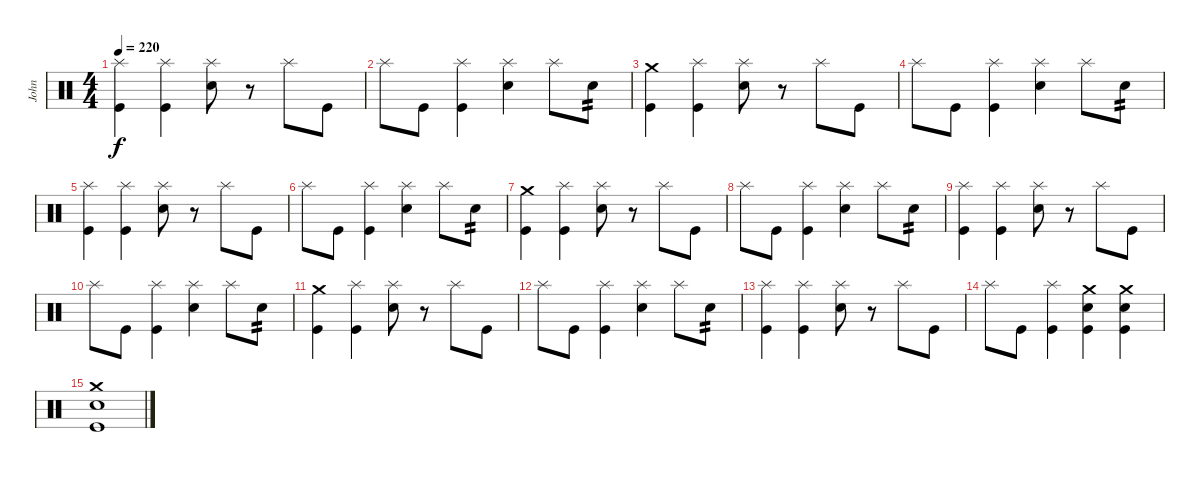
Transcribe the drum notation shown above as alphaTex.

\track ("John" "John") {instrument percussion}
\staff {score}
\articulation defaults
\ts (4 4)
\tempo 220
\clef neutral
\ks c
("Splash (hit)" "Kick (hit)").4{dy f} ("Splash (hit)" "Kick (hit)").4 ("Splash (hit)" "Snare (hit) 2").8 r.8 "Splash (hit)".8 "Kick (hit)".8 |
"Splash (hit)".8 "Kick (hit)".8 ("Splash (hit)" "Kick (hit)").4 ("Splash (hit)" "Snare (hit) 2").4 "Splash (hit)".8 "Snare (hit) 2".8{tp 2} |
("Crash medium (hit)" "Kick (hit)").4 ("Splash (hit)" "Kick (hit)").4 ("Splash (hit)" "Snare (hit) 2").8 r.8 "Splash (hit)".8 "Kick (hit)".8 |
"Splash (hit)".8 "Kick (hit)".8 ("Splash (hit)" "Kick (hit)").4 ("Splash (hit)" "Snare (hit) 2").4 "Splash (hit)".8 "Snare (hit) 2".8{tp 2} |
("Splash (hit)" "Kick (hit)").4 ("Splash (hit)" "Kick (hit)").4 ("Splash (hit)" "Snare (hit) 2").8 r.8 "Splash (hit)".8 "Kick (hit)".8 |
"Splash (hit)".8 "Kick (hit)".8 ("Splash (hit)" "Kick (hit)").4 ("Splash (hit)" "Snare (hit) 2").4 "Splash (hit)".8 "Snare (hit) 2".8{tp 2} |
("Crash medium (hit)" "Kick (hit)").4 ("Splash (hit)" "Kick (hit)").4 ("Splash (hit)" "Snare (hit) 2").8 r.8 "Splash (hit)".8 "Kick (hit)".8 |
"Splash (hit)".8 "Kick (hit)".8 ("Splash (hit)" "Kick (hit)").4 ("Splash (hit)" "Snare (hit) 2").4 "Splash (hit)".8 "Snare (hit) 2".8{tp 2} |
("Splash (hit)" "Kick (hit)").4 ("Splash (hit)" "Kick (hit)").4 ("Splash (hit)" "Snare (hit) 2").8 r.8 "Splash (hit)".8 "Kick (hit)".8 |
"Splash (hit)".8 "Kick (hit)".8 ("Splash (hit)" "Kick (hit)").4 ("Splash (hit)" "Snare (hit) 2").4 "Splash (hit)".8 "Snare (hit) 2".8{tp 2} |
("Crash medium (hit)" "Kick (hit)").4 ("Splash (hit)" "Kick (hit)").4 ("Splash (hit)" "Snare (hit) 2").8 r.8 "Splash (hit)".8 "Kick (hit)".8 |
"Splash (hit)".8 "Kick (hit)".8 ("Splash (hit)" "Kick (hit)").4 ("Splash (hit)" "Snare (hit) 2").4 "Splash (hit)".8 "Snare (hit) 2".8{tp 2} |
("Splash (hit)" "Kick (hit)").4 ("Splash (hit)" "Kick (hit)").4 ("Splash (hit)" "Snare (hit) 2").8 r.8 "Splash (hit)".8 "Kick (hit)".8 |
"Splash (hit)".8 "Kick (hit)".8 ("Splash (hit)" "Kick (hit)").4 ("Crash medium (hit)" "Snare (hit) 2" "Kick (hit)").4 ("Crash medium (hit)" "Snare (hit) 2" "Kick (hit)").4 |
("Crash medium (hit)" "Snare (hit) 2" "Kick (hit)").1
